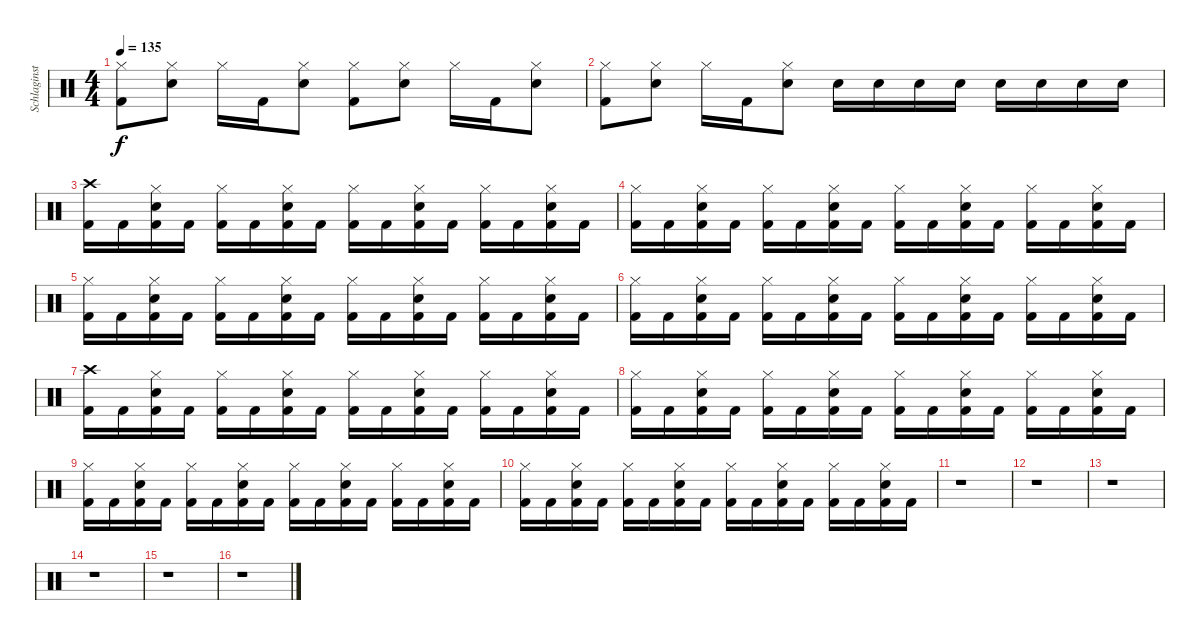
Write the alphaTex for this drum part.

\track ("Schlaginstrumente - Auswahl" "Schlaginst") {instrument percussion}
\staff {score}
\articulation defaults
\ts (4 4)
\tempo 135
\clef neutral
\ks c
("Hi-Hat (closed)" "Kick (hit) 2").8{dy f} ("Hi-Hat (closed)" "Snare (hit) 2").8 "Hi-Hat (closed)".16 "Kick (hit) 2".16 ("Hi-Hat (closed)" "Snare (hit) 2").8 ("Hi-Hat (closed)" "Kick (hit) 2").8 ("Hi-Hat (closed)" "Snare (hit) 2").8 "Hi-Hat (closed)".16 "Kick (hit) 2".16 ("Hi-Hat (closed)" "Snare (hit) 2").8 |
("Hi-Hat (closed)" "Kick (hit) 2").8 ("Hi-Hat (closed)" "Snare (hit) 2").8 "Hi-Hat (closed)".16 "Kick (hit) 2".16 ("Hi-Hat (closed)" "Snare (hit) 2").8 "Snare (hit) 2".16 "Snare (hit) 2".16 "Snare (hit) 2".16 "Snare (hit) 2".16 "Snare (hit) 2".16 "Snare (hit) 2".16 "Snare (hit) 2".16 "Snare (hit) 2".16 |
("Crash high (hit)" "Kick (hit) 2").16 "Kick (hit) 2".16 ("Hi-Hat (closed)" "Snare (hit) 2" "Kick (hit) 2").16 "Kick (hit) 2".16 ("Hi-Hat (closed)" "Kick (hit) 2").16 "Kick (hit) 2".16 ("Hi-Hat (closed)" "Snare (hit) 2" "Kick (hit) 2").16 "Kick (hit) 2".16 ("Hi-Hat (closed)" "Kick (hit) 2").16 "Kick (hit) 2".16 ("Hi-Hat (closed)" "Snare (hit) 2" "Kick (hit) 2").16 "Kick (hit) 2".16 ("Hi-Hat (closed)" "Kick (hit) 2").16 "Kick (hit) 2".16 ("Hi-Hat (closed)" "Snare (hit) 2" "Kick (hit) 2").16 "Kick (hit) 2".16 |
("Hi-Hat (closed)" "Kick (hit) 2").16 "Kick (hit) 2".16 ("Hi-Hat (closed)" "Snare (hit) 2" "Kick (hit) 2").16 "Kick (hit) 2".16 ("Hi-Hat (closed)" "Kick (hit) 2").16 "Kick (hit) 2".16 ("Hi-Hat (closed)" "Snare (hit) 2" "Kick (hit) 2").16 "Kick (hit) 2".16 ("Hi-Hat (closed)" "Kick (hit) 2").16 "Kick (hit) 2".16 ("Hi-Hat (closed)" "Snare (hit) 2" "Kick (hit) 2").16 "Kick (hit) 2".16 ("Hi-Hat (closed)" "Kick (hit) 2").16 "Kick (hit) 2".16 ("Hi-Hat (closed)" "Snare (hit) 2" "Kick (hit) 2").16 "Kick (hit) 2".16 |
("Hi-Hat (closed)" "Kick (hit) 2").16 "Kick (hit) 2".16 ("Hi-Hat (closed)" "Snare (hit) 2" "Kick (hit) 2").16 "Kick (hit) 2".16 ("Hi-Hat (closed)" "Kick (hit) 2").16 "Kick (hit) 2".16 ("Hi-Hat (closed)" "Snare (hit) 2" "Kick (hit) 2").16 "Kick (hit) 2".16 ("Hi-Hat (closed)" "Kick (hit) 2").16 "Kick (hit) 2".16 ("Hi-Hat (closed)" "Snare (hit) 2" "Kick (hit) 2").16 "Kick (hit) 2".16 ("Hi-Hat (closed)" "Kick (hit) 2").16 "Kick (hit) 2".16 ("Hi-Hat (closed)" "Snare (hit) 2" "Kick (hit) 2").16 "Kick (hit) 2".16 |
("Hi-Hat (closed)" "Kick (hit) 2").16 "Kick (hit) 2".16 ("Hi-Hat (closed)" "Snare (hit) 2" "Kick (hit) 2").16 "Kick (hit) 2".16 ("Hi-Hat (closed)" "Kick (hit) 2").16 "Kick (hit) 2".16 ("Hi-Hat (closed)" "Snare (hit) 2" "Kick (hit) 2").16 "Kick (hit) 2".16 ("Hi-Hat (closed)" "Kick (hit) 2").16 "Kick (hit) 2".16 ("Hi-Hat (closed)" "Snare (hit) 2" "Kick (hit) 2").16 "Kick (hit) 2".16 ("Hi-Hat (closed)" "Kick (hit) 2").16 "Kick (hit) 2".16 ("Hi-Hat (closed)" "Snare (hit) 2" "Kick (hit) 2").16 "Kick (hit) 2".16 |
("Crash high (hit)" "Kick (hit) 2").16 "Kick (hit) 2".16 ("Hi-Hat (closed)" "Snare (hit) 2" "Kick (hit) 2").16 "Kick (hit) 2".16 ("Hi-Hat (closed)" "Kick (hit) 2").16 "Kick (hit) 2".16 ("Hi-Hat (closed)" "Snare (hit) 2" "Kick (hit) 2").16 "Kick (hit) 2".16 ("Hi-Hat (closed)" "Kick (hit) 2").16 "Kick (hit) 2".16 ("Hi-Hat (closed)" "Snare (hit) 2" "Kick (hit) 2").16 "Kick (hit) 2".16 ("Hi-Hat (closed)" "Kick (hit) 2").16 "Kick (hit) 2".16 ("Hi-Hat (closed)" "Snare (hit) 2" "Kick (hit) 2").16 "Kick (hit) 2".16 |
("Hi-Hat (closed)" "Kick (hit) 2").16 "Kick (hit) 2".16 ("Hi-Hat (closed)" "Snare (hit) 2" "Kick (hit) 2").16 "Kick (hit) 2".16 ("Hi-Hat (closed)" "Kick (hit) 2").16 "Kick (hit) 2".16 ("Hi-Hat (closed)" "Snare (hit) 2" "Kick (hit) 2").16 "Kick (hit) 2".16 ("Hi-Hat (closed)" "Kick (hit) 2").16 "Kick (hit) 2".16 ("Hi-Hat (closed)" "Snare (hit) 2" "Kick (hit) 2").16 "Kick (hit) 2".16 ("Hi-Hat (closed)" "Kick (hit) 2").16 "Kick (hit) 2".16 ("Hi-Hat (closed)" "Snare (hit) 2" "Kick (hit) 2").16 "Kick (hit) 2".16 |
("Hi-Hat (closed)" "Kick (hit) 2").16 "Kick (hit) 2".16 ("Hi-Hat (closed)" "Snare (hit) 2" "Kick (hit) 2").16 "Kick (hit) 2".16 ("Hi-Hat (closed)" "Kick (hit) 2").16 "Kick (hit) 2".16 ("Hi-Hat (closed)" "Snare (hit) 2" "Kick (hit) 2").16 "Kick (hit) 2".16 ("Hi-Hat (closed)" "Kick (hit) 2").16 "Kick (hit) 2".16 ("Hi-Hat (closed)" "Snare (hit) 2" "Kick (hit) 2").16 "Kick (hit) 2".16 ("Hi-Hat (closed)" "Kick (hit) 2").16 "Kick (hit) 2".16 ("Hi-Hat (closed)" "Snare (hit) 2" "Kick (hit) 2").16 "Kick (hit) 2".16 |
("Hi-Hat (closed)" "Kick (hit) 2").16 "Kick (hit) 2".16 ("Hi-Hat (closed)" "Snare (hit) 2" "Kick (hit) 2").16 "Kick (hit) 2".16 ("Hi-Hat (closed)" "Kick (hit) 2").16 "Kick (hit) 2".16 ("Hi-Hat (closed)" "Snare (hit) 2" "Kick (hit) 2").16 "Kick (hit) 2".16 ("Hi-Hat (closed)" "Kick (hit) 2").16 "Kick (hit) 2".16 ("Hi-Hat (closed)" "Snare (hit) 2" "Kick (hit) 2").16 "Kick (hit) 2".16 ("Hi-Hat (closed)" "Kick (hit) 2").16 "Kick (hit) 2".16 ("Hi-Hat (closed)" "Snare (hit) 2" "Kick (hit) 2").16 "Kick (hit) 2".16 |
r.1 |
r.1 |
r.1 |
r.1 |
r.1 |
r.1
